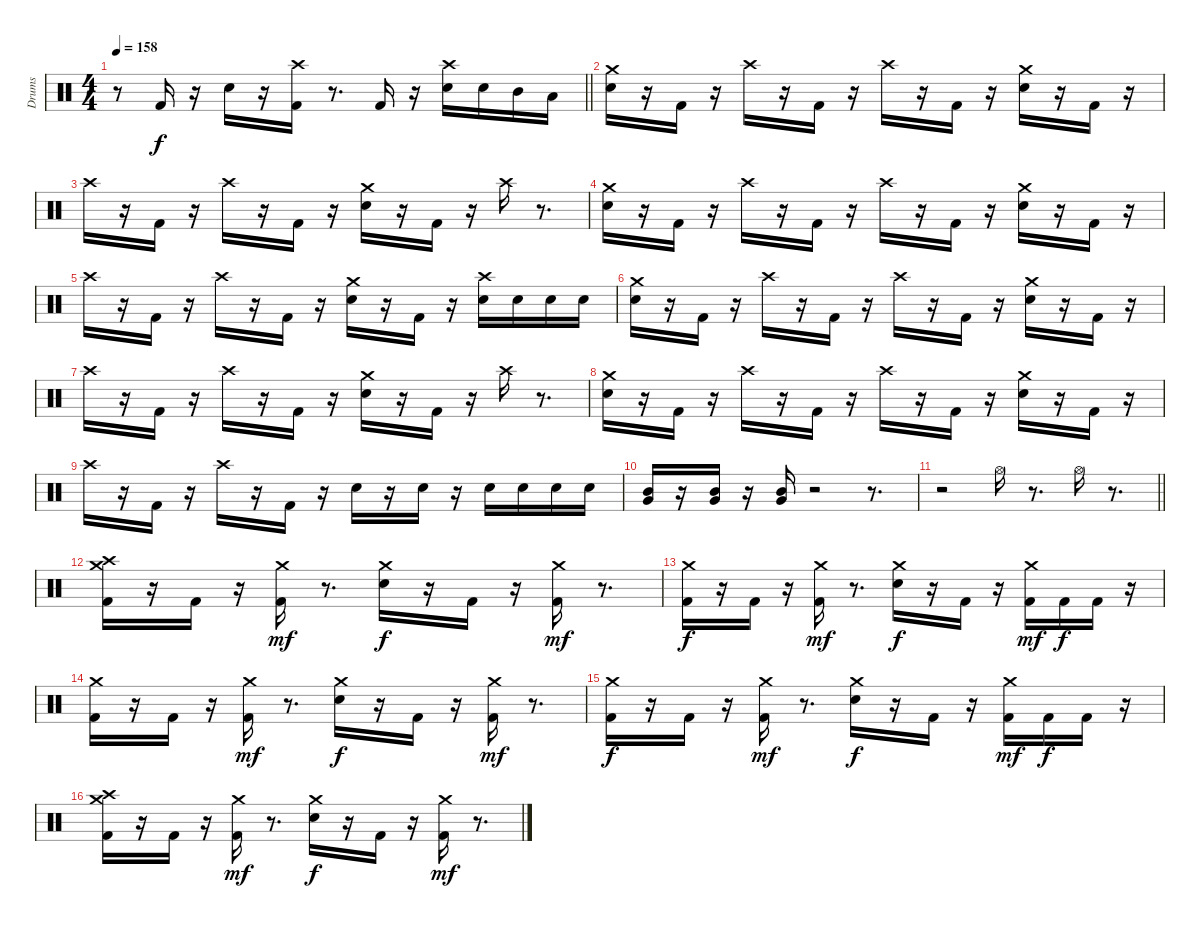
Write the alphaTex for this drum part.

\track ("Drums" "Drums") {instrument percussion}
\staff {score}
\articulation defaults
\ts (4 4)
\tempo 158
\clef neutral
\barLineRight lightlight
\ks c
r.8{dy f} "Kick (hit) 2".16 r.16 "Snare (hit) 2".16 r.16 ("Kick (hit) 2" "Crash high (hit)").16 r.8{d} "Kick (hit) 2".16 r.16 ("Snare (hit) 2" "Crash high (hit)").16 "Snare (hit) 2".16 "Mid Tom (hit)".16 "Low Tom (hit)".16 |
\section ("" " ")
("Snare (hit) 2" "Crash medium (hit)").16 r.16 "Kick (hit) 2".16 r.16 "Crash high (hit)".16 r.16 "Kick (hit) 2".16 r.16 "Crash high (hit)".16 r.16 "Kick (hit) 2".16 r.16 ("Snare (hit) 2" "Crash medium (hit)").16 r.16 "Kick (hit) 2".16 r.16 |
"Crash high (hit)".16 r.16 "Kick (hit) 2".16 r.16 "Crash high (hit)".16 r.16 "Kick (hit) 2".16 r.16 ("Snare (hit) 2" "Crash medium (hit)").16 r.16 "Kick (hit) 2".16 r.16 "Crash high (hit)".16 r.8{d} |
("Snare (hit) 2" "Crash medium (hit)").16 r.16 "Kick (hit) 2".16 r.16 "Crash high (hit)".16 r.16 "Kick (hit) 2".16 r.16 "Crash high (hit)".16 r.16 "Kick (hit) 2".16 r.16 ("Snare (hit) 2" "Crash medium (hit)").16 r.16 "Kick (hit) 2".16 r.16 |
"Crash high (hit)".16 r.16 "Kick (hit) 2".16 r.16 "Crash high (hit)".16 r.16 "Kick (hit) 2".16 r.16 ("Snare (hit) 2" "Crash medium (hit)").16 r.16 "Kick (hit) 2".16 r.16 ("Snare (hit) 2" "Crash high (hit)").16 "Snare (hit) 2".16 "Snare (hit) 2".16 "Snare (hit) 2".16 |
("Snare (hit) 2" "Crash medium (hit)").16 r.16 "Kick (hit) 2".16 r.16 "Crash high (hit)".16 r.16 "Kick (hit) 2".16 r.16 "Crash high (hit)".16 r.16 "Kick (hit) 2".16 r.16 ("Snare (hit) 2" "Crash medium (hit)").16 r.16 "Kick (hit) 2".16 r.16 |
"Crash high (hit)".16 r.16 "Kick (hit) 2".16 r.16 "Crash high (hit)".16 r.16 "Kick (hit) 2".16 r.16 ("Snare (hit) 2" "Crash medium (hit)").16 r.16 "Kick (hit) 2".16 r.16 "Crash high (hit)".16 r.8{d} |
("Snare (hit) 2" "Crash medium (hit)").16 r.16 "Kick (hit) 2".16 r.16 "Crash high (hit)".16 r.16 "Kick (hit) 2".16 r.16 "Crash high (hit)".16 r.16 "Kick (hit) 2".16 r.16 ("Snare (hit) 2" "Crash medium (hit)").16 r.16 "Kick (hit) 2".16 r.16 |
"Crash high (hit)".16 r.16 "Kick (hit) 2".16 r.16 "Crash high (hit)".16 r.16 "Kick (hit) 2".16 r.16 "Snare (hit) 2".16 r.16 "Snare (hit) 2".16 r.16 "Snare (hit) 2".16 "Snare (hit) 2".16 "Snare (hit) 2".16 "Snare (hit) 2".16 |
("Very Low Tom (hit)" "Mid Tom (hit)").16 r.16 ("Very Low Tom (hit)" "Mid Tom (hit)").16 r.16 ("Very Low Tom (hit)" "Mid Tom (hit)").16 r.2 r.8{d} |
\barLineRight lightlight
r.2 "Hi-Hat (open)".16 r.8{d} "Hi-Hat (open)".16 r.8{d} |
\section ("" " ")
("Kick (hit) 2" "Crash high (hit)" "Crash medium (hit)").16 r.16 "Kick (hit) 2".16 r.16 ("Kick (hit) 2" "Crash medium (hit)").16{dy mf} r.8{d} ("Snare (hit) 2" "Crash medium (hit)").16{dy f} r.16 "Kick (hit) 2".16 r.16 ("Kick (hit) 2" "Crash medium (hit)").16{dy mf} r.8{d} |
("Kick (hit) 2" "Crash medium (hit)").16{dy f} r.16 "Kick (hit) 2".16 r.16 ("Kick (hit) 2" "Crash medium (hit)").16{dy mf} r.8{d} ("Snare (hit) 2" "Crash medium (hit)").16{dy f} r.16 "Kick (hit) 2".16 r.16 ("Kick (hit) 2" "Crash medium (hit)").16{dy mf} "Kick (hit) 2".16{dy f} "Kick (hit) 2".16 r.16 |
("Kick (hit) 2" "Crash medium (hit)").16 r.16 "Kick (hit) 2".16 r.16 ("Kick (hit) 2" "Crash medium (hit)").16{dy mf} r.8{d} ("Snare (hit) 2" "Crash medium (hit)").16{dy f} r.16 "Kick (hit) 2".16 r.16 ("Kick (hit) 2" "Crash medium (hit)").16{dy mf} r.8{d} |
("Kick (hit) 2" "Crash medium (hit)").16{dy f} r.16 "Kick (hit) 2".16 r.16 ("Kick (hit) 2" "Crash medium (hit)").16{dy mf} r.8{d} ("Snare (hit) 2" "Crash medium (hit)").16{dy f} r.16 "Kick (hit) 2".16 r.16 ("Kick (hit) 2" "Crash medium (hit)").16{dy mf} "Kick (hit) 2".16{dy f} "Kick (hit) 2".16 r.16 |
("Kick (hit) 2" "Crash high (hit)" "Crash medium (hit)").16 r.16 "Kick (hit) 2".16 r.16 ("Kick (hit) 2" "Crash medium (hit)").16{dy mf} r.8{d} ("Snare (hit) 2" "Crash medium (hit)").16{dy f} r.16 "Kick (hit) 2".16 r.16 ("Kick (hit) 2" "Crash medium (hit)").16{dy mf} r.8{d}
